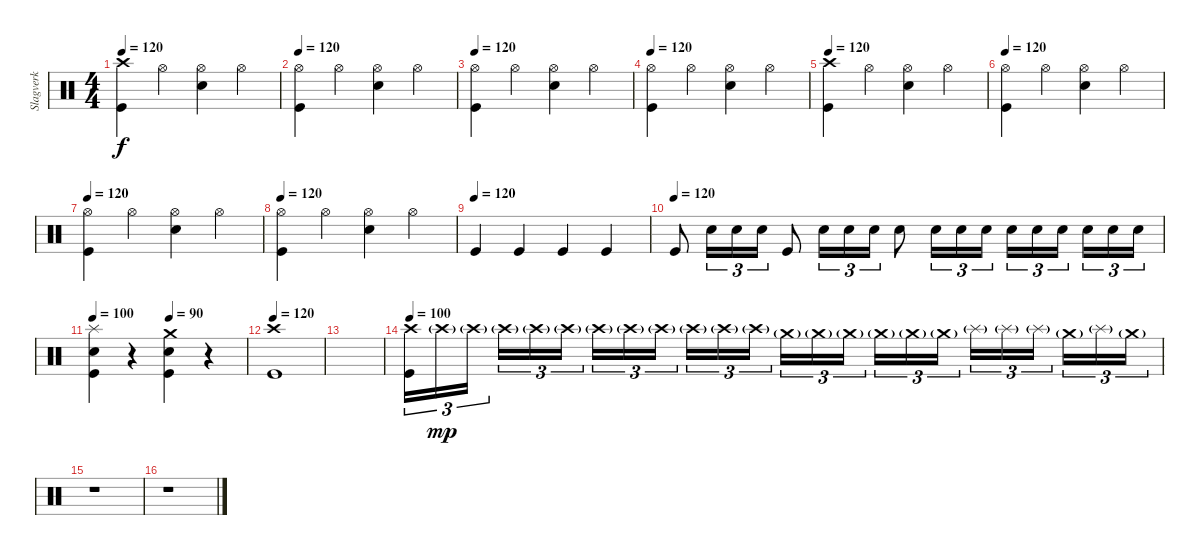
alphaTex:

\track ("Slagverk" "Slagverk") {instrument percussion}
\staff {score}
\articulation defaults
\ts (4 4)
\tempo 120
\clef neutral
\ks c
("Crash high (hit)" "Kick (hit)").4{dy f} "Hi-Hat (open)".4 ("Hi-Hat (open)" "Electric Snare (hit)").4 "Hi-Hat (open)".4 |
\tempo 120
("Hi-Hat (open)" "Kick (hit)").4 "Hi-Hat (open)".4 ("Hi-Hat (open)" "Electric Snare (hit)").4 "Hi-Hat (open)".4 |
\tempo 120
("Hi-Hat (open)" "Kick (hit)").4 "Hi-Hat (open)".4 ("Hi-Hat (open)" "Electric Snare (hit)").4 "Hi-Hat (open)".4 |
\tempo 120
("Hi-Hat (open)" "Kick (hit)").4 "Hi-Hat (open)".4 ("Hi-Hat (open)" "Electric Snare (hit)").4 "Hi-Hat (open)".4 |
\tempo 120
("Crash high (hit)" "Kick (hit)").4 "Hi-Hat (open)".4 ("Hi-Hat (open)" "Electric Snare (hit)").4 "Hi-Hat (open)".4 |
\tempo 120
("Hi-Hat (open)" "Kick (hit)").4 "Hi-Hat (open)".4 ("Hi-Hat (open)" "Electric Snare (hit)").4 "Hi-Hat (open)".4 |
\tempo 120
("Hi-Hat (open)" "Kick (hit)").4 "Hi-Hat (open)".4 ("Hi-Hat (open)" "Electric Snare (hit)").4 "Hi-Hat (open)".4 |
\tempo 120
("Hi-Hat (open)" "Kick (hit)").4 "Hi-Hat (open)".4 ("Hi-Hat (open)" "Electric Snare (hit)").4 "Hi-Hat (open)".4 |
\tempo (120)
"Kick (hit)".4 "Kick (hit)".4 "Kick (hit)".4 "Kick (hit)".4 |
\tempo (120)
"Kick (hit)".8 "Electric Snare (hit)".16{tu (3 2)} "Electric Snare (hit)".16{tu (3 2)} "Electric Snare (hit)".16{tu (3 2)} "Kick (hit)".8 "Electric Snare (hit)".16{tu (3 2)} "Electric Snare (hit)".16{tu (3 2)} "Electric Snare (hit)".16{tu (3 2)} "Electric Snare (hit)".8 "Electric Snare (hit)".16{tu (3 2)} "Electric Snare (hit)".16{tu (3 2)} "Electric Snare (hit)".16{tu (3 2)} "Electric Snare (hit)".16{tu (3 2)} "Electric Snare (hit)".16{tu (3 2)} "Electric Snare (hit)".16{tu (3 2)} "Electric Snare (hit)".16{tu (3 2)} "Electric Snare (hit)".16{tu (3 2)} "Electric Snare (hit)".16{tu (3 2)} |
\tempo 100
\tempo (90 0.5)
("Splash (hit)" "Electric Snare (hit)" "Kick (hit)").4 r.4 ("Crash medium (hit)" "Electric Snare (hit)" "Kick (hit)").4 r.4 |
\tempo 120
("Crash high (hit)" "Kick (hit)").1 |
|
\tempo 100
("Crash high (hit)" "Kick (hit)").16{tu (3 2) volume 13} "Crash high (hit)"{g}.16{tu (3 2) dy mp} "Crash high (hit)"{g}.16{tu (3 2)} "Crash high (hit)"{g}.16{tu (3 2)} "Crash high (hit)"{g}.16{tu (3 2)} "Crash high (hit)"{g}.16{tu (3 2)} "Crash high (hit)"{g}.16{tu (3 2)} "Crash high (hit)"{g}.16{tu (3 2)} "Crash high (hit)"{g}.16{tu (3 2)} "Crash high (hit)"{g}.16{tu (3 2)} "Crash high (hit)"{g}.16{tu (3 2)} "Crash high (hit)"{g}.16{tu (3 2)} "Crash medium (hit)"{g}.16{tu (3 2)} "Crash medium (hit)"{g}.16{tu (3 2)} "Crash medium (hit)"{g}.16{tu (3 2)} "Crash medium (hit)"{g}.16{tu (3 2)} "Crash medium (hit)"{g}.16{tu (3 2)} "Crash medium (hit)"{g}.16{tu (3 2)} "Splash (hit)"{g}.16{tu (3 2)} "Splash (hit)"{g}.16{tu (3 2)} "Splash (hit)"{g}.16{tu (3 2)} "Crash medium (hit)"{g}.16{tu (3 2)} "Splash (hit)"{g}.16{tu (3 2)} "Crash medium (hit)"{g}.16{tu (3 2)} |
r.1 |
r.1
